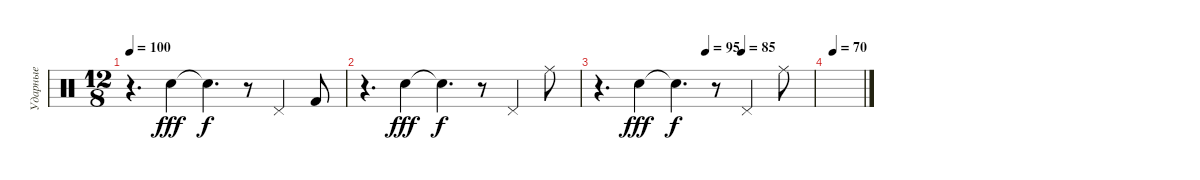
\track ("Ударные" "Ударные") {instrument percussion}
\staff {score}
\articulation defaults
\ts (12 8)
\tempo 100
\clef neutral
\ks c
r.4{d dy f} "Electric Snare (hit)".4{dy fff} "Snare (hit)"{t}.4{d dy f} r.8 "Pedal Hi-Hat (hit)".4 "Kick (hit) 2".8 |
r.4{d} "Electric Snare (hit)".4{dy fff} "Snare (hit)"{t}.4{d dy f} r.8 "Pedal Hi-Hat (hit)".4 "Ride (middle)".8 |
\tempo (95 0.5)
\tempo (85 0.6666666666666666)
r.4{d} "Electric Snare (hit)".4{dy fff} "Snare (hit)"{t}.4{d dy f} r.8 "Pedal Hi-Hat (hit)".4 "Ride (middle)".8 |
\tempo (70 0.16666666666666666)
